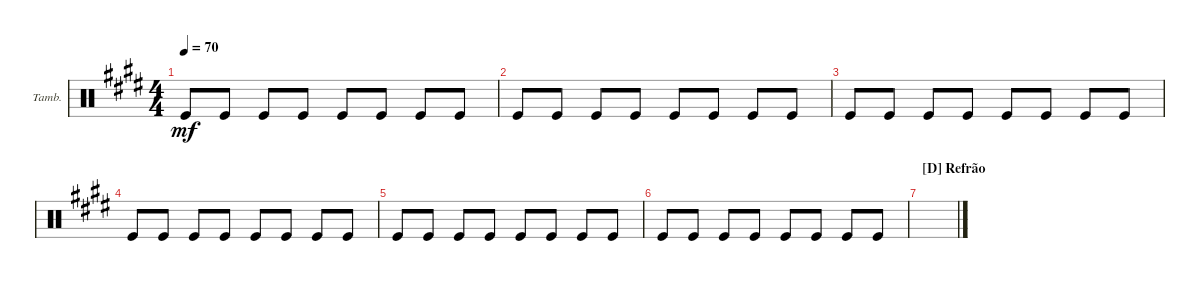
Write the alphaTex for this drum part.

\defaultSystemsLayout 4
\bracketExtendMode groupsimilarinstruments
\firstSystemTrackNameOrientation horizontal
\otherSystemsTrackNameOrientation horizontal
\track ("Tambourine" "Tamb.") {instrument percussion}
\staff {score}
\articulation defaults
\ts (4 4)
\tempo 70
\clef neutral
\scale
0.5
\ks e "Kick (hit)".8{dy mf} "Kick (hit)".8 "Kick (hit)".8 "Kick (hit)".8 "Kick (hit)".8 "Kick (hit)".8 "Kick (hit)".8 "Kick (hit)".8
|
\scale
0.5 "Kick (hit)".8 "Kick (hit)".8 "Kick (hit)".8 "Kick (hit)".8 "Kick (hit)".8 "Kick (hit)".8 "Kick (hit)".8 "Kick (hit)".8 |
\scale
0.5 "Kick (hit)".8 "Kick (hit)".8 "Kick (hit)".8 "Kick (hit)".8 "Kick (hit)".8 "Kick (hit)".8 "Kick (hit)".8 "Kick (hit)".8 |
\scale
0.5 "Kick (hit)".8 "Kick (hit)".8 "Kick (hit)".8 "Kick (hit)".8 "Kick (hit)".8 "Kick (hit)".8 "Kick (hit)".8 "Kick (hit)".8 |
\scale
0.5 "Kick (hit)".8 "Kick (hit)".8 "Kick (hit)".8 "Kick (hit)".8 "Kick (hit)".8 "Kick (hit)".8 "Kick (hit)".8 "Kick (hit)".8 |
\scale
0.5 "Kick (hit)".8 "Kick (hit)".8 "Kick (hit)".8 "Kick (hit)".8 "Kick (hit)".8 "Kick (hit)".8 "Kick (hit)".8 "Kick (hit)".8 |
\section ("D" "Refrão")
\scale
0.5 |
\scale
0.5 |
\scale
0.5 |
\scale
0.5 |
\scale
0.5 |
\scale
0.5
